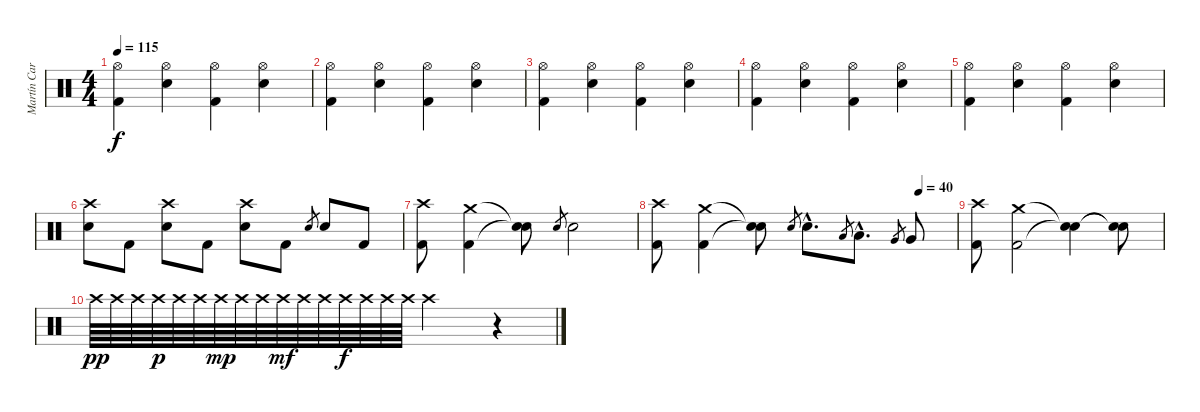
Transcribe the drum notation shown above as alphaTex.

\track ("Martín Carrizo" "Martín Car") {instrument percussion}
\staff {score}
\articulation defaults
\ts (4 4)
\tempo 115
\clef neutral
\ks c
("Hi-Hat (open)" "Kick (hit) 2").4{dy f} ("Hi-Hat (open)" "Snare (hit) 2").4 ("Hi-Hat (open)" "Kick (hit) 2").4 ("Hi-Hat (open)" "Snare (hit) 2").4 |
("Hi-Hat (open)" "Kick (hit) 2").4 ("Hi-Hat (open)" "Snare (hit) 2").4 ("Hi-Hat (open)" "Kick (hit) 2").4 ("Hi-Hat (open)" "Snare (hit) 2").4 |
("Hi-Hat (open)" "Kick (hit) 2").4 ("Hi-Hat (open)" "Snare (hit) 2").4 ("Hi-Hat (open)" "Kick (hit) 2").4 ("Hi-Hat (open)" "Snare (hit) 2").4 |
("Hi-Hat (open)" "Kick (hit) 2").4 ("Hi-Hat (open)" "Snare (hit) 2").4 ("Hi-Hat (open)" "Kick (hit) 2").4 ("Hi-Hat (open)" "Snare (hit) 2").4 |
("Hi-Hat (open)" "Kick (hit) 2").4 ("Hi-Hat (open)" "Snare (hit) 2").4 ("Hi-Hat (open)" "Kick (hit) 2").4 ("Hi-Hat (open)" "Snare (hit) 2").4 |
("Crash high (hit)" "Snare (hit) 2").8 "Kick (hit) 2".8 ("Crash high (hit)" "Snare (hit) 2").8 "Kick (hit) 2".8 ("Crash high (hit)" "Snare (hit) 2").8 "Kick (hit) 2".8 "Snare (hit) 2".8{gr} "Snare (hit) 2".8 "Kick (hit) 2".8 |
("Crash high (hit)" "Kick (hit) 2").8 ("Crash medium (hit)" "Kick (hit) 2").4 ("Snare (hit)"{t} "Snare (hit)"{t}).8 "Snare (hit) 2".8{gr} "Snare (hit) 2".2 |
\tempo (40 0.875)
("Crash high (hit)" "Kick (hit) 2").8 ("Crash medium (hit)" "Kick (hit) 2").4 ("Snare (hit)"{t} "Snare (hit)"{t}).8 "Snare (hit) 2".8{gr} "Snare (hit) 2"{hac}.8{d} "Low Tom (hit)".8{gr} "Low Tom (hit)"{hac}.8{d} "Very Low Tom (hit)".8{gr} "Very Low Tom (hit)".8 |
("Crash high (hit)" "Kick (hit) 2").8 ("Crash medium (hit)" "Kick (hit) 2").2 ("Snare (hit)"{t} "Snare (hit)"{t}).4 ("Snare (hit)"{t} "Snare (hit)"{t}).8 |
"Crash high (hit)".64{dy pp} "Crash high (hit)".64 "Crash high (hit)".64 "Crash high (hit)".64{dy p} "Crash high (hit)".64 "Crash high (hit)".64 "Crash high (hit)".64{dy mp} "Crash high (hit)".64 "Crash high (hit)".64 "Crash high (hit)".64{dy mf} "Crash high (hit)".64 "Crash high (hit)".64 "Crash high (hit)".64{dy f} "Crash high (hit)".64 "Crash high (hit)".64 "Crash high (hit)".64 "Crash high (hit)".2 r.4
